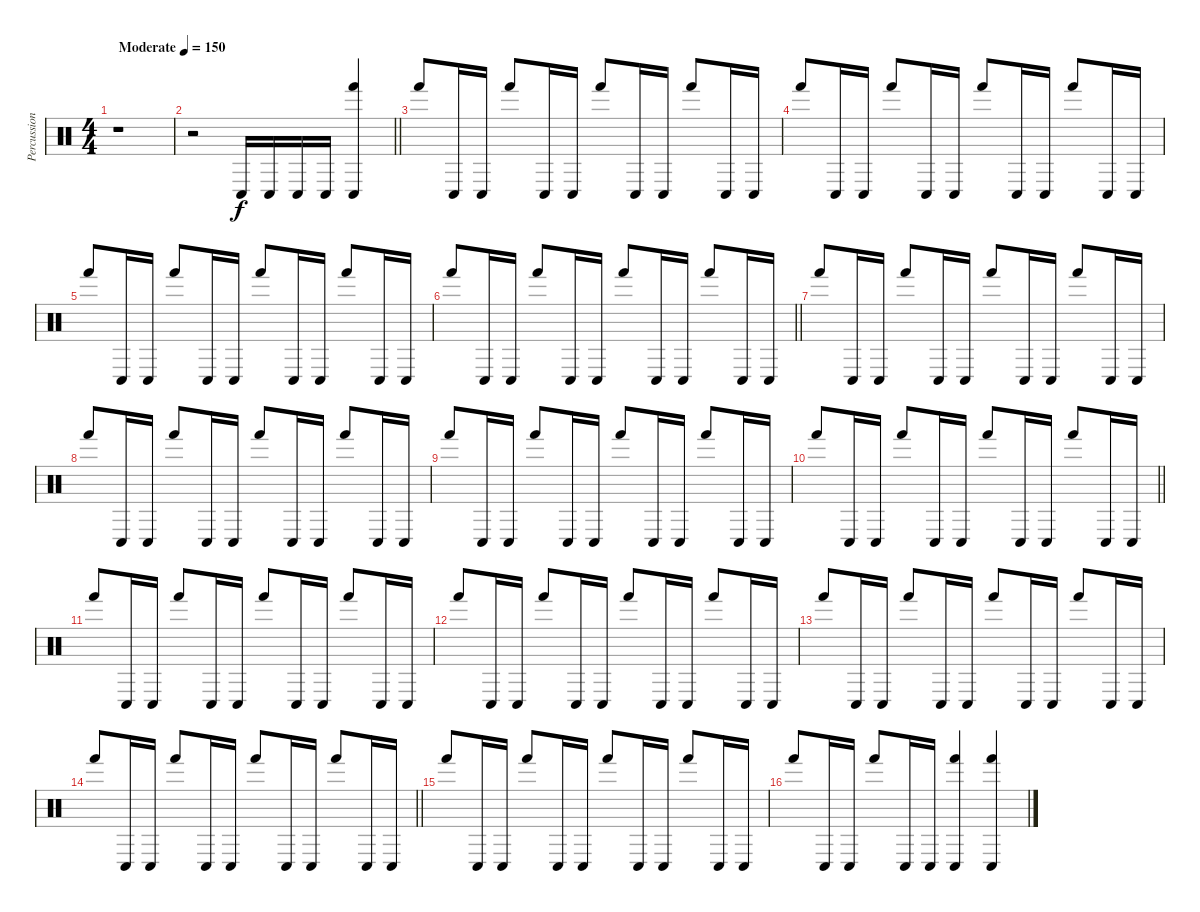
\track ("Percussion" "Percussion") {instrument percussion}
\staff {score}
\articulation defaults
\ts (4 4)
\tempo (150 "Moderate")
\clef neutral
\ks c
r.1{dy f} |
\barLineRight lightlight
r.2 "Conga low (hit)".16 "Conga low (hit)".16 "Conga low (hit)".16 "Conga low (hit)".16 ("Hand (hit)" "Conga low (hit)").4 |
"Hand (hit)".8 "Conga low (hit)".16 "Conga low (hit)".16 "Hand (hit)".8 "Conga low (hit)".16 "Conga low (hit)".16 "Hand (hit)".8 "Conga low (hit)".16 "Conga low (hit)".16 "Hand (hit)".8 "Conga low (hit)".16 "Conga low (hit)".16 |
"Hand (hit)".8 "Conga low (hit)".16 "Conga low (hit)".16 "Hand (hit)".8 "Conga low (hit)".16 "Conga low (hit)".16 "Hand (hit)".8 "Conga low (hit)".16 "Conga low (hit)".16 "Hand (hit)".8 "Conga low (hit)".16 "Conga low (hit)".16 |
"Hand (hit)".8 "Conga low (hit)".16 "Conga low (hit)".16 "Hand (hit)".8 "Conga low (hit)".16 "Conga low (hit)".16 "Hand (hit)".8 "Conga low (hit)".16 "Conga low (hit)".16 "Hand (hit)".8 "Conga low (hit)".16 "Conga low (hit)".16 |
\barLineRight lightlight "Hand (hit)".8 "Conga low (hit)".16 "Conga low (hit)".16 "Hand (hit)".8 "Conga low (hit)".16 "Conga low (hit)".16 "Hand (hit)".8 "Conga low (hit)".16 "Conga low (hit)".16 "Hand (hit)".8 "Conga low (hit)".16 "Conga low (hit)".16
|
"Hand (hit)".8 "Conga low (hit)".16 "Conga low (hit)".16 "Hand (hit)".8 "Conga low (hit)".16 "Conga low (hit)".16 "Hand (hit)".8 "Conga low (hit)".16 "Conga low (hit)".16 "Hand (hit)".8 "Conga low (hit)".16 "Conga low (hit)".16 |
"Hand (hit)".8 "Conga low (hit)".16 "Conga low (hit)".16 "Hand (hit)".8 "Conga low (hit)".16 "Conga low (hit)".16 "Hand (hit)".8 "Conga low (hit)".16 "Conga low (hit)".16 "Hand (hit)".8 "Conga low (hit)".16 "Conga low (hit)".16 |
"Hand (hit)".8 "Conga low (hit)".16 "Conga low (hit)".16 "Hand (hit)".8 "Conga low (hit)".16 "Conga low (hit)".16 "Hand (hit)".8 "Conga low (hit)".16 "Conga low (hit)".16 "Hand (hit)".8 "Conga low (hit)".16 "Conga low (hit)".16 |
\barLineRight lightlight "Hand (hit)".8 "Conga low (hit)".16 "Conga low (hit)".16 "Hand (hit)".8 "Conga low (hit)".16 "Conga low (hit)".16 "Hand (hit)".8 "Conga low (hit)".16 "Conga low (hit)".16 "Hand (hit)".8 "Conga low (hit)".16 "Conga low (hit)".16
|
"Hand (hit)".8 "Conga low (hit)".16 "Conga low (hit)".16 "Hand (hit)".8 "Conga low (hit)".16 "Conga low (hit)".16 "Hand (hit)".8 "Conga low (hit)".16 "Conga low (hit)".16 "Hand (hit)".8 "Conga low (hit)".16 "Conga low (hit)".16 |
"Hand (hit)".8 "Conga low (hit)".16 "Conga low (hit)".16 "Hand (hit)".8 "Conga low (hit)".16 "Conga low (hit)".16 "Hand (hit)".8 "Conga low (hit)".16 "Conga low (hit)".16 "Hand (hit)".8 "Conga low (hit)".16 "Conga low (hit)".16 |
"Hand (hit)".8 "Conga low (hit)".16 "Conga low (hit)".16 "Hand (hit)".8 "Conga low (hit)".16 "Conga low (hit)".16 "Hand (hit)".8 "Conga low (hit)".16 "Conga low (hit)".16 "Hand (hit)".8 "Conga low (hit)".16 "Conga low (hit)".16 |
\barLineRight lightlight "Hand (hit)".8 "Conga low (hit)".16 "Conga low (hit)".16 "Hand (hit)".8 "Conga low (hit)".16 "Conga low (hit)".16 "Hand (hit)".8 "Conga low (hit)".16 "Conga low (hit)".16 "Hand (hit)".8 "Conga low (hit)".16 "Conga low (hit)".16
|
"Hand (hit)".8 "Conga low (hit)".16 "Conga low (hit)".16 "Hand (hit)".8 "Conga low (hit)".16 "Conga low (hit)".16 "Hand (hit)".8 "Conga low (hit)".16 "Conga low (hit)".16 "Hand (hit)".8 "Conga low (hit)".16 "Conga low (hit)".16 |
"Hand (hit)".8 "Conga low (hit)".16 "Conga low (hit)".16 "Hand (hit)".8 "Conga low (hit)".16 "Conga low (hit)".16 ("Hand (hit)" "Conga low (hit)").4 ("Hand (hit)" "Conga low (hit)").4
